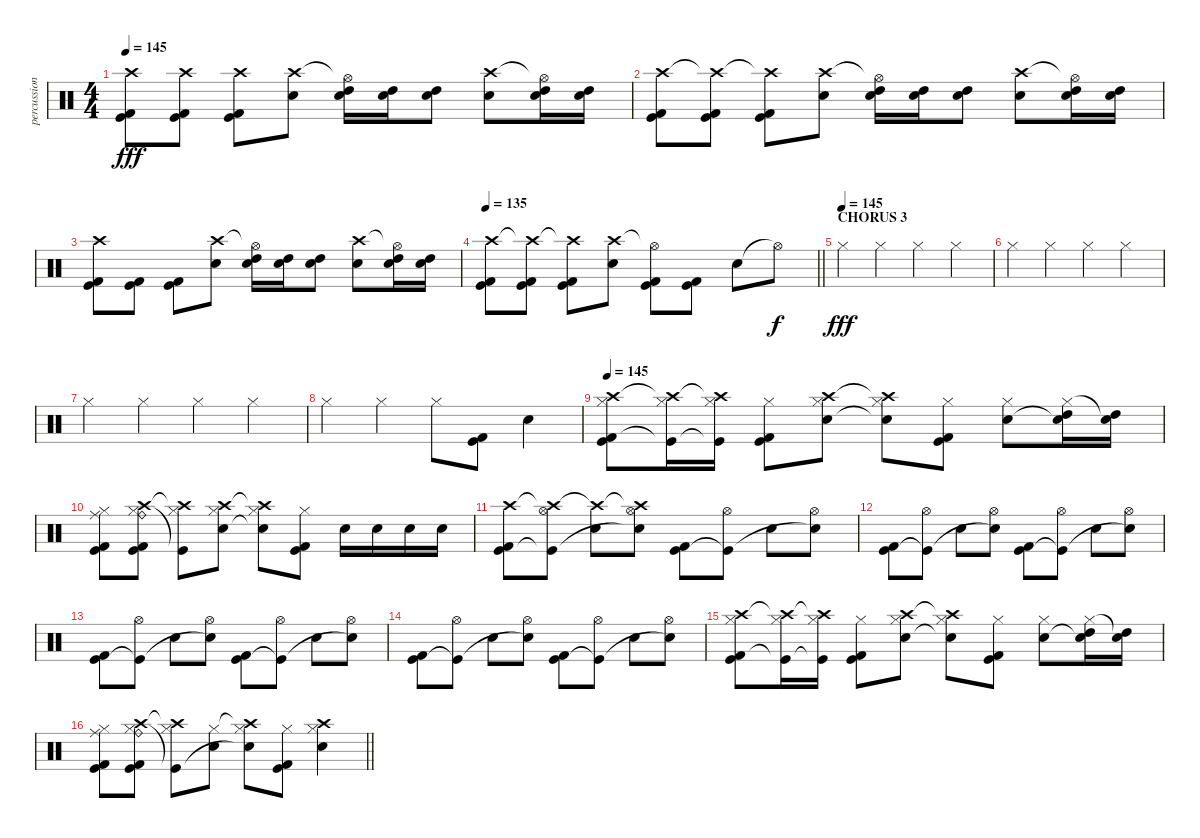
\track ("percussion" "percussion") {instrument percussion}
\staff {score}
\articulation defaults
\ts (4 4)
\tempo 145
\clef neutral
\ks c
("Crash high (hit)" "Kick (hit) 2" "Kick (hit)").8{dy fff} ("Crash high (hit)" "Kick (hit) 2" "Kick (hit)").8 ("Crash high (hit)" "Kick (hit) 2" "Kick (hit)").8 ("Crash high (hit)" "Electric Snare (hit)").8 ("Hi-Hat (open)"{t} "Electric Snare (hit)" "High Tom (hit)").16 ("Electric Snare (hit)" "High Tom (hit)").16 ("Electric Snare (hit)" "High Tom (hit)").8 ("Crash high (hit)" "Electric Snare (hit)").8 ("Hi-Hat (open)"{t} "Electric Snare (hit)" "High Tom (hit)").16 ("Electric Snare (hit)" "High Tom (hit)").16 |
("Crash high (hit)" "Kick (hit) 2" "Kick (hit)").8 ("Crash high (hit)"{t} "Kick (hit) 2" "Kick (hit)").8 ("Crash high (hit)"{t} "Kick (hit) 2" "Kick (hit)").8 ("Crash high (hit)" "Electric Snare (hit)").8 ("Hi-Hat (open)"{t} "Electric Snare (hit)" "High Tom (hit)").16 ("Electric Snare (hit)" "High Tom (hit)").16 ("Electric Snare (hit)" "High Tom (hit)").8 ("Crash high (hit)" "Electric Snare (hit)").8 ("Hi-Hat (open)"{t} "Electric Snare (hit)" "High Tom (hit)").16 ("Electric Snare (hit)" "High Tom (hit)").16 |
("Crash high (hit)" "Kick (hit) 2" "Kick (hit)").8 ("Kick (hit) 2" "Kick (hit)").8 ("Kick (hit) 2" "Kick (hit)").8 ("Crash high (hit)" "Electric Snare (hit)").8 ("Hi-Hat (open)"{t} "Electric Snare (hit)" "High Tom (hit)").16 ("Electric Snare (hit)" "High Tom (hit)").16 ("Electric Snare (hit)" "High Tom (hit)").8 ("Crash high (hit)" "Electric Snare (hit)").8 ("Hi-Hat (open)"{t} "Electric Snare (hit)" "High Tom (hit)").16 ("Electric Snare (hit)" "High Tom (hit)").16 |
\tempo 135
\barLineRight lightlight
("Crash high (hit)" "Kick (hit) 2" "Kick (hit)").8 ("Crash high (hit)"{t} "Kick (hit) 2" "Kick (hit)").8 ("Crash high (hit)"{t} "Kick (hit) 2" "Kick (hit)").8 ("Crash high (hit)" "Electric Snare (hit)").8 ("Hi-Hat (open)"{t} "Kick (hit) 2" "Kick (hit)").8 ("Kick (hit) 2" "Kick (hit)").8 "Electric Snare (hit)".8 "Hi-Hat (open)"{t}.8{dy f} |
\section ("" "CHORUS 3")
\tempo (145)
"Hi-Hat (closed)".4{dy fff} "Hi-Hat (closed)".4 "Hi-Hat (closed)".4 "Hi-Hat (closed)".4 |
"Hi-Hat (closed)".4 "Hi-Hat (closed)".4 "Hi-Hat (closed)".4 "Hi-Hat (closed)".4 |
"Hi-Hat (closed)".4 "Hi-Hat (closed)".4 "Hi-Hat (closed)".4 "Hi-Hat (closed)".4 |
"Hi-Hat (closed)".4 "Hi-Hat (closed)".4 "Hi-Hat (closed)".8 ("Kick (hit)" "Kick (hit) 2").8 "Electric Snare (hit)".4 |
\tempo 145
("Crash high (hit)" "Hi-Hat (closed)" "Kick (hit) 2" "Kick (hit)").8 ("Crash high (hit)"{t} "Hi-Hat (closed)" "Kick (hit)"{t}).16 ("Crash high (hit)"{t} "Hi-Hat (closed)" "Kick (hit)"{t}).16 ("Hi-Hat (closed)" "Kick (hit) 2" "Kick (hit)").8 ("Crash high (hit)" "Hi-Hat (closed)" "Electric Snare (hit)").8 ("Crash high (hit)"{t} "Hi-Hat (closed)" "Electric Snare (hit)"{t}).8 ("Hi-Hat (closed)" "Kick (hit) 2" "Kick (hit)").8 ("Hi-Hat (closed)" "Electric Snare (hit)").8 ("Hi-Hat (closed)" "Electric Snare (hit)"{t} "High Tom (hit)").16 ("Electric Snare (hit)"{t} "High Tom (hit)").16 |
("Ride (middle)" "Hi-Hat (closed)" "Kick (hit) 2" "Kick (hit)").8 ("Crash high (hit)" "Ride (bell)" "Hi-Hat (closed)" "Kick (hit) 2" "Kick (hit)").8 ("Crash high (hit)"{t} "Hi-Hat (closed)" "Kick (hit)"{t}).8 ("Crash high (hit)" "Hi-Hat (closed)" "Electric Snare (hit)").8 ("Crash high (hit)"{t} "Hi-Hat (closed)" "Electric Snare (hit)"{t}).8 ("Hi-Hat (closed)" "Kick (hit) 2" "Kick (hit)").8 "Electric Snare (hit)".16 "Electric Snare (hit)".16 "Electric Snare (hit)".16 "Electric Snare (hit)".16 |
("Crash high (hit)" "Kick (hit) 2" "Kick (hit)").8 ("Crash high (hit)"{t} "Hi-Hat (open)" "Kick (hit)"{t}).8 ("Crash high (hit)"{t} "Electric Snare (hit)").8 ("Crash high (hit)"{t} "Hi-Hat (open)" "Electric Snare (hit)"{t}).8 ("Kick (hit) 2" "Kick (hit)").8 ("Hi-Hat (open)" "Kick (hit)"{t}).8 "Electric Snare (hit)".8 ("Hi-Hat (open)" "Electric Snare (hit)"{t}).8 |
("Kick (hit) 2" "Kick (hit)").8 ("Hi-Hat (open)" "Kick (hit)"{t}).8 "Electric Snare (hit)".8 ("Hi-Hat (open)" "Electric Snare (hit)"{t}).8 ("Kick (hit) 2" "Kick (hit)").8 ("Hi-Hat (open)" "Kick (hit)"{t}).8 "Electric Snare (hit)".8 ("Hi-Hat (open)" "Electric Snare (hit)"{t}).8 |
("Kick (hit) 2" "Kick (hit)").8 ("Hi-Hat (open)" "Kick (hit)"{t}).8 "Electric Snare (hit)".8 ("Hi-Hat (open)" "Electric Snare (hit)"{t}).8 ("Kick (hit) 2" "Kick (hit)").8 ("Hi-Hat (open)" "Kick (hit)"{t}).8 "Electric Snare (hit)".8 ("Hi-Hat (open)" "Electric Snare (hit)"{t}).8 |
("Kick (hit) 2" "Kick (hit)").8 ("Hi-Hat (open)" "Kick (hit)"{t}).8 "Electric Snare (hit)".8 ("Hi-Hat (open)" "Electric Snare (hit)"{t}).8 ("Kick (hit) 2" "Kick (hit)").8 ("Hi-Hat (open)" "Kick (hit)"{t}).8 "Electric Snare (hit)".8 ("Hi-Hat (open)" "Electric Snare (hit)"{t}).8 |
("Crash high (hit)" "Hi-Hat (closed)" "Kick (hit) 2" "Kick (hit)").8 ("Crash high (hit)"{t} "Hi-Hat (closed)" "Kick (hit)"{t}).16 ("Crash high (hit)"{t} "Hi-Hat (closed)" "Kick (hit)"{t}).16 ("Hi-Hat (closed)" "Kick (hit) 2" "Kick (hit)").8 ("Crash high (hit)" "Hi-Hat (closed)" "Electric Snare (hit)").8 ("Crash high (hit)"{t} "Hi-Hat (closed)" "Electric Snare (hit)"{t}).8 ("Hi-Hat (closed)" "Kick (hit) 2" "Kick (hit)").8 ("Hi-Hat (closed)" "Electric Snare (hit)").8 ("Hi-Hat (closed)" "Electric Snare (hit)"{t} "High Tom (hit)").16 ("Electric Snare (hit)"{t} "High Tom (hit)").16 |
\barLineRight lightlight
("Ride (middle)" "Hi-Hat (closed)" "Kick (hit) 2" "Kick (hit)").8 ("Crash high (hit)" "Ride (bell)" "Hi-Hat (closed)" "Kick (hit) 2" "Kick (hit)").8 ("Crash high (hit)"{t} "Hi-Hat (closed)" "Kick (hit)"{t}).8 ("Hi-Hat (closed)" "Electric Snare (hit)").8 ("Crash high (hit)"{t} "Hi-Hat (closed)" "Electric Snare (hit)"{t}).8 ("Hi-Hat (closed)" "Kick (hit) 2" "Kick (hit)").8 ("Crash high (hit)" "Hi-Hat (closed)" "Electric Snare (hit)").4
